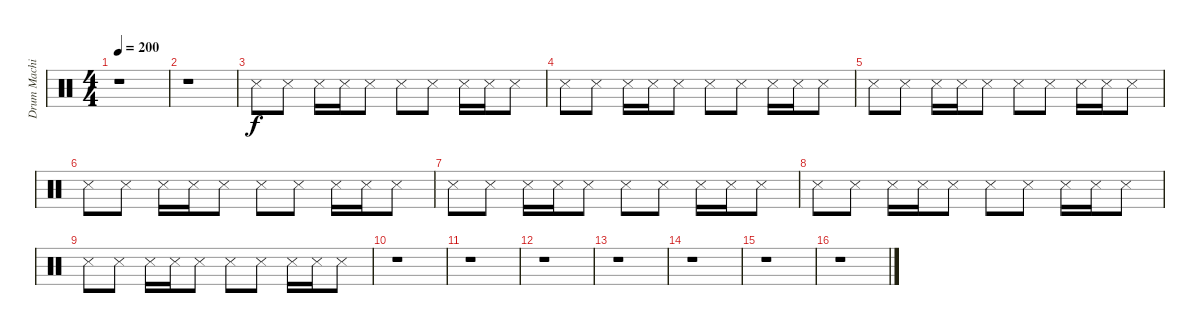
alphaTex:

\track ("Drum Machine (James)" "Drum Machi") {instrument percussion}
\staff {score}
\articulation defaults
\ts (4 4)
\tempo 200
\clef neutral
\ks c
r.1{dy f} |
r.1 |
"Metronome (hit)".8 "Metronome (hit)".8 "Metronome (hit)".16 "Metronome (hit)".16 "Metronome (hit)".8 "Metronome (hit)".8 "Metronome (hit)".8 "Metronome (hit)".16 "Metronome (hit)".16 "Metronome (hit)".8 |
"Metronome (hit)".8 "Metronome (hit)".8 "Metronome (hit)".16 "Metronome (hit)".16 "Metronome (hit)".8 "Metronome (hit)".8 "Metronome (hit)".8 "Metronome (hit)".16 "Metronome (hit)".16 "Metronome (hit)".8 |
"Metronome (hit)".8 "Metronome (hit)".8 "Metronome (hit)".16 "Metronome (hit)".16 "Metronome (hit)".8 "Metronome (hit)".8 "Metronome (hit)".8 "Metronome (hit)".16 "Metronome (hit)".16 "Metronome (hit)".8 |
"Metronome (hit)".8 "Metronome (hit)".8 "Metronome (hit)".16 "Metronome (hit)".16 "Metronome (hit)".8 "Metronome (hit)".8 "Metronome (hit)".8 "Metronome (hit)".16 "Metronome (hit)".16 "Metronome (hit)".8 |
"Metronome (hit)".8 "Metronome (hit)".8 "Metronome (hit)".16 "Metronome (hit)".16 "Metronome (hit)".8 "Metronome (hit)".8 "Metronome (hit)".8 "Metronome (hit)".16 "Metronome (hit)".16 "Metronome (hit)".8 |
"Metronome (hit)".8 "Metronome (hit)".8 "Metronome (hit)".16 "Metronome (hit)".16 "Metronome (hit)".8 "Metronome (hit)".8 "Metronome (hit)".8 "Metronome (hit)".16 "Metronome (hit)".16 "Metronome (hit)".8 |
"Metronome (hit)".8 "Metronome (hit)".8 "Metronome (hit)".16 "Metronome (hit)".16 "Metronome (hit)".8 "Metronome (hit)".8 "Metronome (hit)".8 "Metronome (hit)".16 "Metronome (hit)".16 "Metronome (hit)".8 |
r.1 |
r.1 |
r.1 |
r.1 |
r.1 |
r.1 |
r.1
